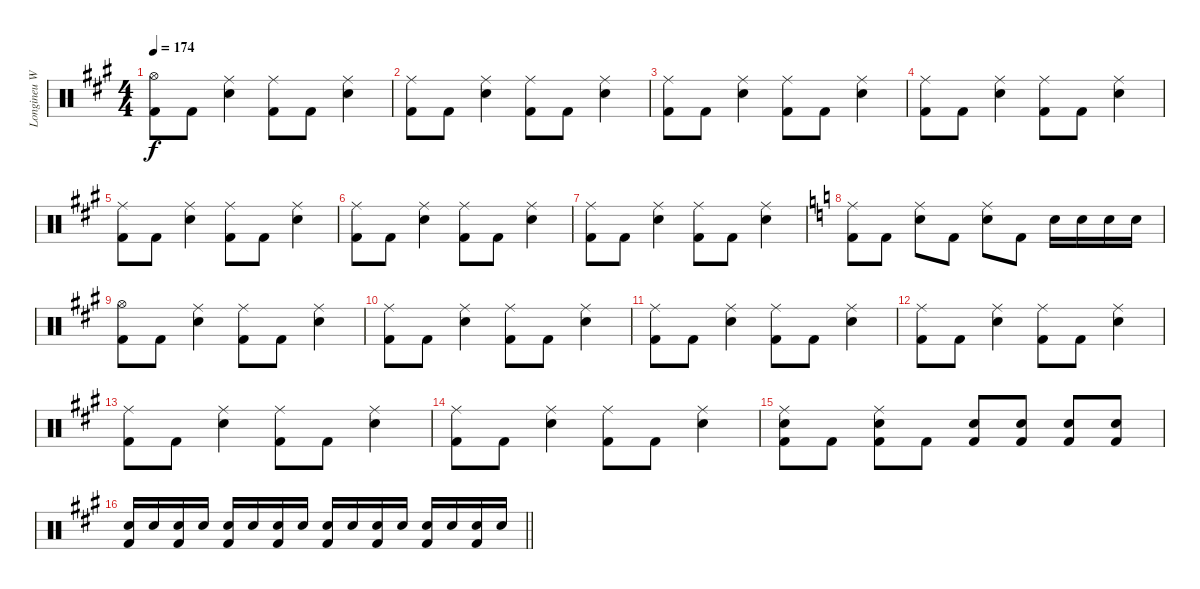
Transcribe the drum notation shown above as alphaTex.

\track ("Longineu W. Parsons III" "Longineu W") {instrument percussion}
\staff {score}
\articulation defaults
\ts (4 4)
\tempo 174
\clef neutral
\ks a
("Hi-Hat (open)" "Kick (hit) 2").8{dy f} "Kick (hit) 2".8 ("Electric Snare (hit)" "Ride (middle)").4 ("Ride (middle)" "Kick (hit) 2").8 "Kick (hit) 2".8 ("Electric Snare (hit)" "Ride (middle)").4 |
("Ride (middle)" "Kick (hit) 2").8 "Kick (hit) 2".8 ("Electric Snare (hit)" "Ride (middle)").4 ("Ride (middle)" "Kick (hit) 2").8 "Kick (hit) 2".8 ("Electric Snare (hit)" "Ride (middle)").4 |
("Ride (middle)" "Kick (hit) 2").8 "Kick (hit) 2".8 ("Electric Snare (hit)" "Ride (middle)").4 ("Ride (middle)" "Kick (hit) 2").8 "Kick (hit) 2".8 ("Electric Snare (hit)" "Ride (middle)").4 |
("Ride (middle)" "Kick (hit) 2").8 "Kick (hit) 2".8 ("Electric Snare (hit)" "Ride (middle)").4 ("Ride (middle)" "Kick (hit) 2").8 "Kick (hit) 2".8 ("Electric Snare (hit)" "Ride (middle)").4 |
("Ride (middle)" "Kick (hit) 2").8 "Kick (hit) 2".8 ("Electric Snare (hit)" "Ride (middle)").4 ("Ride (middle)" "Kick (hit) 2").8 "Kick (hit) 2".8 ("Electric Snare (hit)" "Ride (middle)").4 |
("Ride (middle)" "Kick (hit) 2").8 "Kick (hit) 2".8 ("Electric Snare (hit)" "Ride (middle)").4 ("Ride (middle)" "Kick (hit) 2").8 "Kick (hit) 2".8 ("Electric Snare (hit)" "Ride (middle)").4 |
("Ride (middle)" "Kick (hit) 2").8 "Kick (hit) 2".8 ("Electric Snare (hit)" "Ride (middle)").4 ("Ride (middle)" "Kick (hit) 2").8 "Kick (hit) 2".8 ("Electric Snare (hit)" "Ride (middle)").4 |
\ks c
("Ride (middle)" "Kick (hit) 2").8 "Kick (hit) 2".8 ("Electric Snare (hit)" "Ride (middle)").8 "Kick (hit) 2".8 ("Electric Snare (hit)" "Ride (middle)").8 "Kick (hit) 2".8 "Electric Snare (hit)".16 "Electric Snare (hit)".16 "Electric Snare (hit)".16 "Electric Snare (hit)".16 |
\ks a
("Hi-Hat (open)" "Kick (hit) 2").8 "Kick (hit) 2".8 ("Electric Snare (hit)" "Ride (middle)").4 ("Ride (middle)" "Kick (hit) 2").8 "Kick (hit) 2".8 ("Electric Snare (hit)" "Ride (middle)").4 |
("Ride (middle)" "Kick (hit) 2").8 "Kick (hit) 2".8 ("Electric Snare (hit)" "Ride (middle)").4 ("Ride (middle)" "Kick (hit) 2").8 "Kick (hit) 2".8 ("Electric Snare (hit)" "Ride (middle)").4 |
("Ride (middle)" "Kick (hit) 2").8 "Kick (hit) 2".8 ("Electric Snare (hit)" "Ride (middle)").4 ("Ride (middle)" "Kick (hit) 2").8 "Kick (hit) 2".8 ("Electric Snare (hit)" "Ride (middle)").4 |
("Ride (middle)" "Kick (hit) 2").8 "Kick (hit) 2".8 ("Electric Snare (hit)" "Ride (middle)").4 ("Ride (middle)" "Kick (hit) 2").8 "Kick (hit) 2".8 ("Electric Snare (hit)" "Ride (middle)").4 |
("Ride (middle)" "Kick (hit) 2").8 "Kick (hit) 2".8 ("Electric Snare (hit)" "Ride (middle)").4 ("Ride (middle)" "Kick (hit) 2").8 "Kick (hit) 2".8 ("Electric Snare (hit)" "Ride (middle)").4 |
("Ride (middle)" "Kick (hit) 2").8 "Kick (hit) 2".8 ("Electric Snare (hit)" "Ride (middle)").4 ("Ride (middle)" "Kick (hit) 2").8 "Kick (hit) 2".8 ("Electric Snare (hit)" "Ride (middle)").4 |
("Electric Snare (hit)" "Ride (middle)" "Kick (hit) 2").8 "Kick (hit) 2".8 ("Electric Snare (hit)" "Ride (middle)" "Kick (hit) 2").8 "Kick (hit) 2".8 ("Electric Snare (hit)" "Kick (hit) 2").8 ("Electric Snare (hit)" "Kick (hit) 2").8 ("Electric Snare (hit)" "Kick (hit) 2").8 ("Electric Snare (hit)" "Kick (hit) 2").8 |
\barLineRight lightlight
("Electric Snare (hit)" "Kick (hit) 2").16 "Electric Snare (hit)".16 ("Electric Snare (hit)" "Kick (hit) 2").16 "Electric Snare (hit)".16 ("Electric Snare (hit)" "Kick (hit) 2").16 "Electric Snare (hit)".16 ("Electric Snare (hit)" "Kick (hit) 2").16 "Electric Snare (hit)".16 ("Electric Snare (hit)" "Kick (hit) 2").16 "Electric Snare (hit)".16 ("Electric Snare (hit)" "Kick (hit) 2").16 "Electric Snare (hit)".16 ("Electric Snare (hit)" "Kick (hit) 2").16 "Electric Snare (hit)".16 ("Electric Snare (hit)" "Kick (hit) 2").16 "Electric Snare (hit)".16
